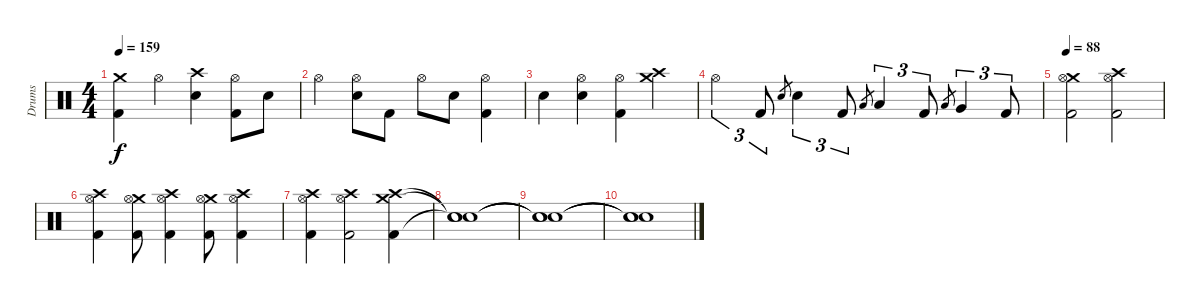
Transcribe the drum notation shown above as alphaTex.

\track ("Drums" "Drums") {instrument percussion}
\staff {score}
\articulation defaults
\ts (4 4)
\tempo 159
\clef neutral
\ks c
("Crash medium (hit)" "Kick (hit) 2").4{dy f} "Hi-Hat (open)".4 ("Crash high (hit)" "Snare (hit) 2").4 ("Hi-Hat (open)" "Kick (hit) 2").8 "Snare (hit) 2".8 |
"Hi-Hat (open)".4 ("Hi-Hat (open)" "Snare (hit) 2").8 "Kick (hit) 2".8 "Hi-Hat (open)".8 "Snare (hit) 2".8 ("Hi-Hat (open)" "Kick (hit) 2").4 |
"Snare (hit) 2".4 ("Hi-Hat (open)" "Snare (hit) 2").4 ("Hi-Hat (open)" "Kick (hit) 2").4 ("Crash high (hit)" "Crash medium (hit)").4 |
"Hi-Hat (open)".4{tu (3 2)} "Kick (hit) 2".8{tu (3 2)} "Snare (hit) 2".8{gr} "Snare (hit) 2".4{tu (3 2)} "Kick (hit) 2".8{tu (3 2)} "Low Tom (hit)".8{gr} "Low Tom (hit)".4{tu (3 2)} "Kick (hit) 2".8{tu (3 2)} "Low Tom (hit)".8{gr} "Very Low Tom (hit)".4{tu (3 2)} "Kick (hit) 2".8{tu (3 2)} |
\tempo 88
("Crash medium (hit)" "Hi-Hat (open)" "Kick (hit) 2").2 ("Crash high (hit)" "Hi-Hat (open)" "Kick (hit) 2").2 |
("Crash high (hit)" "Hi-Hat (open)" "Kick (hit) 2").4 ("Crash medium (hit)" "Hi-Hat (open)" "Kick (hit) 2").8 ("Crash high (hit)" "Hi-Hat (open)" "Kick (hit) 2").4 ("Crash medium (hit)" "Hi-Hat (open)" "Kick (hit) 2").8 ("Crash high (hit)" "Hi-Hat (open)" "Kick (hit) 2").4 |
("Crash high (hit)" "Hi-Hat (open)" "Kick (hit) 2").4 ("Crash high (hit)" "Hi-Hat (open)" "Kick (hit) 2").2 ("Crash high (hit)" "Crash medium (hit)" "Kick (hit) 2").4 |
("Snare (hit)"{t} "Snare (hit)"{t} "Snare (hit)"{t}).1 |
("Snare (hit)"{t} "Snare (hit)"{t} "Snare (hit)"{t}).1 |
("Snare (hit)"{t} "Snare (hit)"{t} "Snare (hit)"{t}).1
